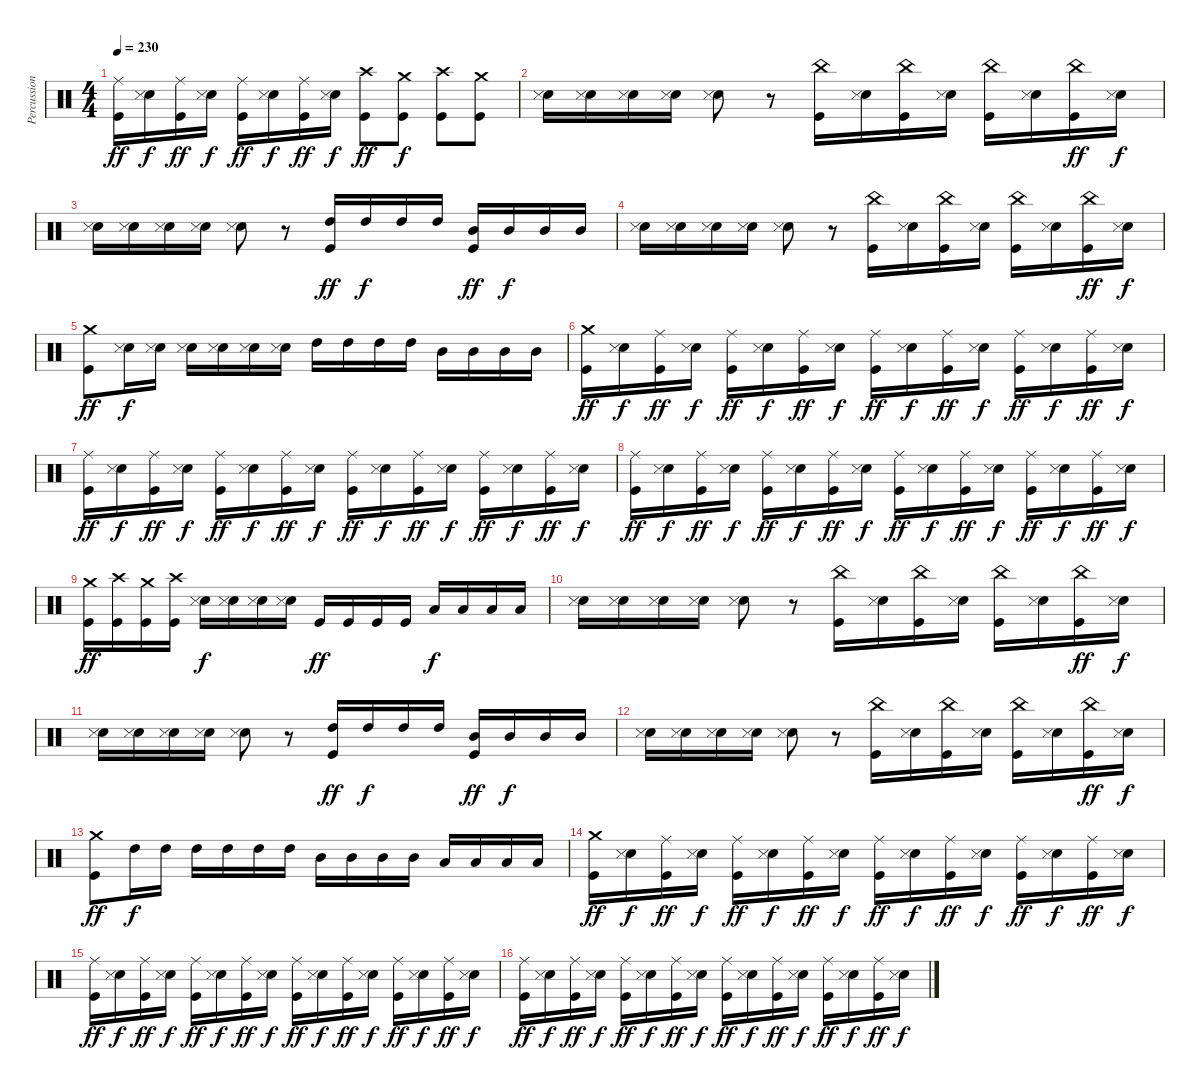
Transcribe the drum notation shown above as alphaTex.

\track ("Percussions" "Percussion") {instrument percussion}
\staff {score}
\articulation defaults
\ts (4 4)
\tempo 230
\clef neutral
\ks c
("Ride (middle)" "Kick (hit)").16{dy ff} ("Electric Snare (hit)" "Snare (side stick) 3").16{dy f} ("Ride (middle)" "Kick (hit)").16{dy ff} ("Electric Snare (hit)" "Snare (side stick) 3").16{dy f} ("Ride (middle)" "Kick (hit)").16{dy ff} ("Electric Snare (hit)" "Snare (side stick) 3").16{dy f} ("Ride (middle)" "Kick (hit)").16{dy ff} ("Electric Snare (hit)" "Snare (side stick) 3").16{dy f} ("Crash high (hit)" "Kick (hit)").8{dy ff} ("Crash medium (hit)" "Kick (hit)").8{dy f} ("Crash high (hit)" "Kick (hit)").8 ("Crash medium (hit)" "Kick (hit)").8 |
("Electric Snare (hit)" "Snare (side stick) 3").16 ("Electric Snare (hit)" "Snare (side stick) 3").16 ("Electric Snare (hit)" "Snare (side stick) 3").16 ("Electric Snare (hit)" "Snare (side stick) 3").16 ("Electric Snare (hit)" "Snare (side stick) 3").8 r.8 ("China (hit)" "Kick (hit)").16 ("Electric Snare (hit)" "Snare (side stick) 3").16 ("China (hit)" "Kick (hit)").16 ("Electric Snare (hit)" "Snare (side stick) 3").16 ("China (hit)" "Kick (hit)").16 ("Electric Snare (hit)" "Snare (side stick) 3").16 ("China (hit)" "Kick (hit)").16{dy ff} ("Electric Snare (hit)" "Snare (side stick) 3").16{dy f} |
("Electric Snare (hit)" "Snare (side stick) 3").16 ("Electric Snare (hit)" "Snare (side stick) 3").16 ("Electric Snare (hit)" "Snare (side stick) 3").16 ("Electric Snare (hit)" "Snare (side stick) 3").16 ("Electric Snare (hit)" "Snare (side stick) 3").8 r.8 ("High Tom (hit)" "Kick (hit)").16{dy ff} "High Tom (hit)".16{dy f} "High Tom (hit)".16 "High Tom (hit)".16 ("Mid Tom (hit)" "Kick (hit)").16{dy ff} "Mid Tom (hit)".16{dy f} "Mid Tom (hit)".16 "Mid Tom (hit)".16 |
("Electric Snare (hit)" "Snare (side stick) 3").16 ("Electric Snare (hit)" "Snare (side stick) 3").16 ("Electric Snare (hit)" "Snare (side stick) 3").16 ("Electric Snare (hit)" "Snare (side stick) 3").16 ("Electric Snare (hit)" "Snare (side stick) 3").8 r.8 ("China (hit)" "Kick (hit)").16 ("Electric Snare (hit)" "Snare (side stick) 3").16 ("China (hit)" "Kick (hit)").16 ("Electric Snare (hit)" "Snare (side stick) 3").16 ("China (hit)" "Kick (hit)").16 ("Electric Snare (hit)" "Snare (side stick) 3").16 ("China (hit)" "Kick (hit)").16{dy ff} ("Electric Snare (hit)" "Snare (side stick) 3").16{dy f} |
("Crash medium (hit)" "Kick (hit)").8{dy ff} ("Electric Snare (hit)" "Snare (side stick) 3").16{dy f} ("Electric Snare (hit)" "Snare (side stick) 3").16 ("Electric Snare (hit)" "Snare (side stick) 3").16 ("Electric Snare (hit)" "Snare (side stick) 3").16 ("Electric Snare (hit)" "Snare (side stick) 3").16 ("Electric Snare (hit)" "Snare (side stick) 3").16 "High Tom (hit)".16 "High Tom (hit)".16 "High Tom (hit)".16 "High Tom (hit)".16 "Mid Tom (hit)".16 "Mid Tom (hit)".16 "Mid Tom (hit)".16 "Mid Tom (hit)".16 |
("Crash medium (hit)" "Kick (hit)").16{dy ff} ("Electric Snare (hit)" "Snare (side stick) 3").16{dy f} ("Ride (middle)" "Kick (hit)").16{dy ff} ("Electric Snare (hit)" "Snare (side stick) 3").16{dy f} ("Ride (middle)" "Kick (hit)").16{dy ff} ("Electric Snare (hit)" "Snare (side stick) 3").16{dy f} ("Ride (middle)" "Kick (hit)").16{dy ff} ("Electric Snare (hit)" "Snare (side stick) 3").16{dy f} ("Ride (middle)" "Kick (hit)").16{dy ff} ("Electric Snare (hit)" "Snare (side stick) 3").16{dy f} ("Ride (middle)" "Kick (hit)").16{dy ff} ("Electric Snare (hit)" "Snare (side stick) 3").16{dy f} ("Ride (middle)" "Kick (hit)").16{dy ff} ("Electric Snare (hit)" "Snare (side stick) 3").16{dy f} ("Ride (middle)" "Kick (hit)").16{dy ff} ("Electric Snare (hit)" "Snare (side stick) 3").16{dy f} |
("Ride (middle)" "Kick (hit)").16{dy ff} ("Electric Snare (hit)" "Snare (side stick) 3").16{dy f} ("Ride (middle)" "Kick (hit)").16{dy ff} ("Electric Snare (hit)" "Snare (side stick) 3").16{dy f} ("Ride (middle)" "Kick (hit)").16{dy ff} ("Electric Snare (hit)" "Snare (side stick) 3").16{dy f} ("Ride (middle)" "Kick (hit)").16{dy ff} ("Electric Snare (hit)" "Snare (side stick) 3").16{dy f} ("Ride (middle)" "Kick (hit)").16{dy ff} ("Electric Snare (hit)" "Snare (side stick) 3").16{dy f} ("Ride (middle)" "Kick (hit)").16{dy ff} ("Electric Snare (hit)" "Snare (side stick) 3").16{dy f} ("Ride (middle)" "Kick (hit)").16{dy ff} ("Electric Snare (hit)" "Snare (side stick) 3").16{dy f} ("Ride (middle)" "Kick (hit)").16{dy ff} ("Electric Snare (hit)" "Snare (side stick) 3").16{dy f} |
("Ride (middle)" "Kick (hit)").16{dy ff} ("Electric Snare (hit)" "Snare (side stick) 3").16{dy f} ("Ride (middle)" "Kick (hit)").16{dy ff} ("Electric Snare (hit)" "Snare (side stick) 3").16{dy f} ("Ride (middle)" "Kick (hit)").16{dy ff} ("Electric Snare (hit)" "Snare (side stick) 3").16{dy f} ("Ride (middle)" "Kick (hit)").16{dy ff} ("Electric Snare (hit)" "Snare (side stick) 3").16{dy f} ("Ride (middle)" "Kick (hit)").16{dy ff} ("Electric Snare (hit)" "Snare (side stick) 3").16{dy f} ("Ride (middle)" "Kick (hit)").16{dy ff} ("Electric Snare (hit)" "Snare (side stick) 3").16{dy f} ("Ride (middle)" "Kick (hit)").16{dy ff} ("Electric Snare (hit)" "Snare (side stick) 3").16{dy f} ("Ride (middle)" "Kick (hit)").16{dy ff} ("Electric Snare (hit)" "Snare (side stick) 3").16{dy f} |
("Crash medium (hit)" "Kick (hit)").16{dy ff} ("Crash high (hit)" "Kick (hit)").16 ("Crash medium (hit)" "Kick (hit)").16 ("Crash high (hit)" "Kick (hit)").16 ("Electric Snare (hit)" "Snare (side stick) 3").16{dy f} ("Electric Snare (hit)" "Snare (side stick) 3").16 ("Electric Snare (hit)" "Snare (side stick) 3").16 ("Electric Snare (hit)" "Snare (side stick) 3").16 "Kick (hit)".16{dy ff} "Kick (hit)".16 "Kick (hit)".16 "Kick (hit)".16 "Low Tom (hit)".16{dy f} "Low Tom (hit)".16 "Low Tom (hit)".16 "Low Tom (hit)".16 |
("Electric Snare (hit)" "Snare (side stick) 3").16 ("Electric Snare (hit)" "Snare (side stick) 3").16 ("Electric Snare (hit)" "Snare (side stick) 3").16 ("Electric Snare (hit)" "Snare (side stick) 3").16 ("Electric Snare (hit)" "Snare (side stick) 3").8 r.8 ("China (hit)" "Kick (hit)").16 ("Electric Snare (hit)" "Snare (side stick) 3").16 ("China (hit)" "Kick (hit)").16 ("Electric Snare (hit)" "Snare (side stick) 3").16 ("China (hit)" "Kick (hit)").16 ("Electric Snare (hit)" "Snare (side stick) 3").16 ("China (hit)" "Kick (hit)").16{dy ff} ("Electric Snare (hit)" "Snare (side stick) 3").16{dy f} |
("Electric Snare (hit)" "Snare (side stick) 3").16 ("Electric Snare (hit)" "Snare (side stick) 3").16 ("Electric Snare (hit)" "Snare (side stick) 3").16 ("Electric Snare (hit)" "Snare (side stick) 3").16 ("Electric Snare (hit)" "Snare (side stick) 3").8 r.8 ("High Tom (hit)" "Kick (hit)").16{dy ff} "High Tom (hit)".16{dy f} "High Tom (hit)".16 "High Tom (hit)".16 ("Mid Tom (hit)" "Kick (hit)").16{dy ff} "Mid Tom (hit)".16{dy f} "Mid Tom (hit)".16 "Mid Tom (hit)".16 |
("Electric Snare (hit)" "Snare (side stick) 3").16 ("Electric Snare (hit)" "Snare (side stick) 3").16 ("Electric Snare (hit)" "Snare (side stick) 3").16 ("Electric Snare (hit)" "Snare (side stick) 3").16 ("Electric Snare (hit)" "Snare (side stick) 3").8 r.8 ("China (hit)" "Kick (hit)").16 ("Electric Snare (hit)" "Snare (side stick) 3").16 ("China (hit)" "Kick (hit)").16 ("Electric Snare (hit)" "Snare (side stick) 3").16 ("China (hit)" "Kick (hit)").16 ("Electric Snare (hit)" "Snare (side stick) 3").16 ("China (hit)" "Kick (hit)").16{dy ff} ("Electric Snare (hit)" "Snare (side stick) 3").16{dy f} |
("Crash medium (hit)" "Kick (hit)").8{dy ff} "High Tom (hit)".16{dy f} "High Tom (hit)".16 "High Tom (hit)".16 "High Tom (hit)".16 "High Tom (hit)".16 "High Tom (hit)".16 "Mid Tom (hit)".16 "Mid Tom (hit)".16 "Mid Tom (hit)".16 "Mid Tom (hit)".16 "Low Tom (hit)".16 "Low Tom (hit)".16 "Low Tom (hit)".16 "Low Tom (hit)".16 |
("Crash medium (hit)" "Kick (hit)").16{dy ff} ("Electric Snare (hit)" "Snare (side stick) 3").16{dy f} ("Ride (middle)" "Kick (hit)").16{dy ff} ("Electric Snare (hit)" "Snare (side stick) 3").16{dy f} ("Ride (middle)" "Kick (hit)").16{dy ff} ("Electric Snare (hit)" "Snare (side stick) 3").16{dy f} ("Ride (middle)" "Kick (hit)").16{dy ff} ("Electric Snare (hit)" "Snare (side stick) 3").16{dy f} ("Ride (middle)" "Kick (hit)").16{dy ff} ("Electric Snare (hit)" "Snare (side stick) 3").16{dy f} ("Ride (middle)" "Kick (hit)").16{dy ff} ("Electric Snare (hit)" "Snare (side stick) 3").16{dy f} ("Ride (middle)" "Kick (hit)").16{dy ff} ("Electric Snare (hit)" "Snare (side stick) 3").16{dy f} ("Ride (middle)" "Kick (hit)").16{dy ff} ("Electric Snare (hit)" "Snare (side stick) 3").16{dy f} |
("Ride (middle)" "Kick (hit)").16{dy ff} ("Electric Snare (hit)" "Snare (side stick) 3").16{dy f} ("Ride (middle)" "Kick (hit)").16{dy ff} ("Electric Snare (hit)" "Snare (side stick) 3").16{dy f} ("Ride (middle)" "Kick (hit)").16{dy ff} ("Electric Snare (hit)" "Snare (side stick) 3").16{dy f} ("Ride (middle)" "Kick (hit)").16{dy ff} ("Electric Snare (hit)" "Snare (side stick) 3").16{dy f} ("Ride (middle)" "Kick (hit)").16{dy ff} ("Electric Snare (hit)" "Snare (side stick) 3").16{dy f} ("Ride (middle)" "Kick (hit)").16{dy ff} ("Electric Snare (hit)" "Snare (side stick) 3").16{dy f} ("Ride (middle)" "Kick (hit)").16{dy ff} ("Electric Snare (hit)" "Snare (side stick) 3").16{dy f} ("Ride (middle)" "Kick (hit)").16{dy ff} ("Electric Snare (hit)" "Snare (side stick) 3").16{dy f} |
("Ride (middle)" "Kick (hit)").16{dy ff} ("Electric Snare (hit)" "Snare (side stick) 3").16{dy f} ("Ride (middle)" "Kick (hit)").16{dy ff} ("Electric Snare (hit)" "Snare (side stick) 3").16{dy f} ("Ride (middle)" "Kick (hit)").16{dy ff} ("Electric Snare (hit)" "Snare (side stick) 3").16{dy f} ("Ride (middle)" "Kick (hit)").16{dy ff} ("Electric Snare (hit)" "Snare (side stick) 3").16{dy f} ("Ride (middle)" "Kick (hit)").16{dy ff} ("Electric Snare (hit)" "Snare (side stick) 3").16{dy f} ("Ride (middle)" "Kick (hit)").16{dy ff} ("Electric Snare (hit)" "Snare (side stick) 3").16{dy f} ("Ride (middle)" "Kick (hit)").16{dy ff} ("Electric Snare (hit)" "Snare (side stick) 3").16{dy f} ("Ride (middle)" "Kick (hit)").16{dy ff} ("Electric Snare (hit)" "Snare (side stick) 3").16{dy f}
